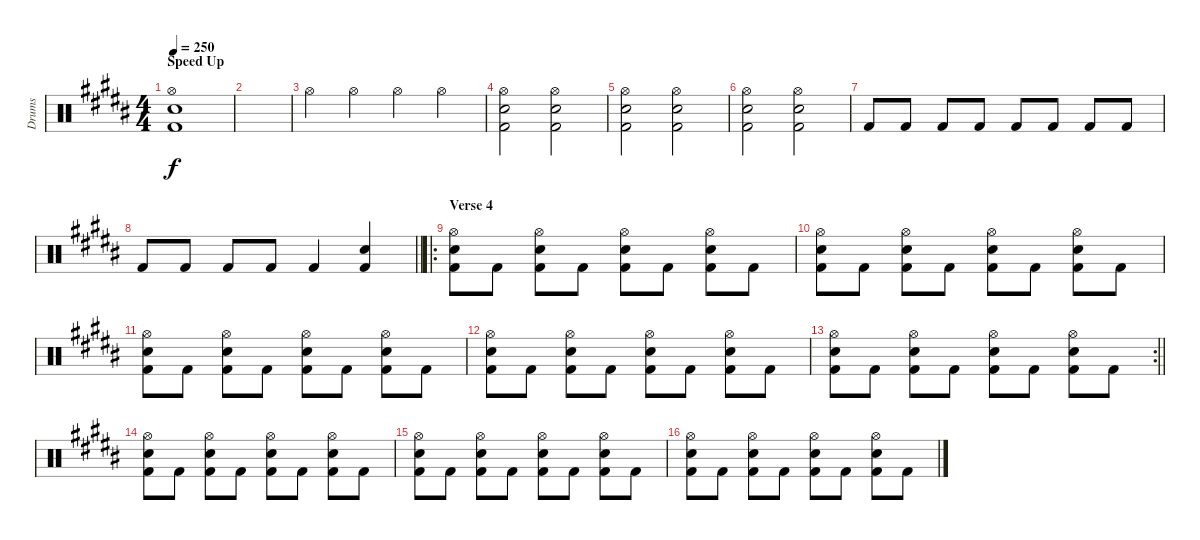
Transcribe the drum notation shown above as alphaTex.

\track ("Drums" "Drums") {instrument percussion}
\staff {score}
\articulation defaults
\ts (4 4)
\section ("" "Speed Up")
\tempo 250
\clef neutral
\ks b
("Hi-Hat (open)" "Snare (hit) 2" "Kick (hit) 2").1{dy f} |
\ks g#minor
|
\ks b "Hi-Hat (open)".4 "Hi-Hat (open)".4 "Hi-Hat (open)".4 "Hi-Hat (open)".4
|
\ks g#minor
("Hi-Hat (open)" "Snare (hit) 2" "Kick (hit) 2").2 ("Hi-Hat (open)" "Snare (hit) 2" "Kick (hit) 2").2 |
\ks b
("Hi-Hat (open)" "Snare (hit) 2" "Kick (hit) 2").2 ("Hi-Hat (open)" "Snare (hit) 2" "Kick (hit) 2").2 |
\ks g#minor
("Hi-Hat (open)" "Snare (hit) 2" "Kick (hit) 2").2 ("Hi-Hat (open)" "Snare (hit) 2" "Kick (hit) 2").2 |
\ks b "Kick (hit) 2".8 "Kick (hit) 2".8 "Kick (hit) 2".8 "Kick (hit) 2".8 "Kick (hit) 2".8 "Kick (hit) 2".8 "Kick (hit) 2".8 "Kick (hit) 2".8
|
\barLineRight lightlight
\ks g#minor "Kick (hit) 2".8 "Kick (hit) 2".8 "Kick (hit) 2".8 "Kick (hit) 2".8 "Kick (hit) 2".4
("Snare (hit) 2" "Kick (hit) 2").4 |
\ro
\section ("" "Verse 4")
("Hi-Hat (open)" "Snare (hit) 2" "Kick (hit) 2").8 "Kick (hit) 2".8 ("Hi-Hat (open)" "Snare (hit) 2" "Kick (hit) 2").8 "Kick (hit) 2".8 ("Hi-Hat (open)" "Snare (hit) 2" "Kick (hit) 2").8 "Kick (hit) 2".8 ("Hi-Hat (open)" "Snare (hit) 2" "Kick (hit) 2").8 "Kick (hit) 2".8 |
\ks b
("Hi-Hat (open)" "Snare (hit) 2" "Kick (hit) 2").8 "Kick (hit) 2".8 ("Hi-Hat (open)" "Snare (hit) 2" "Kick (hit) 2").8 "Kick (hit) 2".8 ("Hi-Hat (open)" "Snare (hit) 2" "Kick (hit) 2").8 "Kick (hit) 2".8 ("Hi-Hat (open)" "Snare (hit) 2" "Kick (hit) 2").8 "Kick (hit) 2".8 |
\ks g#minor
("Hi-Hat (open)" "Snare (hit) 2" "Kick (hit) 2").8 "Kick (hit) 2".8 ("Hi-Hat (open)" "Snare (hit) 2" "Kick (hit) 2").8 "Kick (hit) 2".8 ("Hi-Hat (open)" "Snare (hit) 2" "Kick (hit) 2").8 "Kick (hit) 2".8 ("Hi-Hat (open)" "Snare (hit) 2" "Kick (hit) 2").8 "Kick (hit) 2".8 |
\ks b
("Hi-Hat (open)" "Snare (hit) 2" "Kick (hit) 2").8 "Kick (hit) 2".8 ("Hi-Hat (open)" "Snare (hit) 2" "Kick (hit) 2").8 "Kick (hit) 2".8 ("Hi-Hat (open)" "Snare (hit) 2" "Kick (hit) 2").8 "Kick (hit) 2".8 ("Hi-Hat (open)" "Snare (hit) 2" "Kick (hit) 2").8 "Kick (hit) 2".8 |
\rc 2
\barLineRight lightlight
\ks g#minor
("Hi-Hat (open)" "Snare (hit) 2" "Kick (hit) 2").8 "Kick (hit) 2".8 ("Hi-Hat (open)" "Snare (hit) 2" "Kick (hit) 2").8 "Kick (hit) 2".8 ("Hi-Hat (open)" "Snare (hit) 2" "Kick (hit) 2").8 "Kick (hit) 2".8 ("Hi-Hat (open)" "Snare (hit) 2" "Kick (hit) 2").8 "Kick (hit) 2".8 |
("Hi-Hat (open)" "Snare (hit) 2" "Kick (hit) 2").8 "Kick (hit) 2".8 ("Hi-Hat (open)" "Snare (hit) 2" "Kick (hit) 2").8 "Kick (hit) 2".8 ("Hi-Hat (open)" "Snare (hit) 2" "Kick (hit) 2").8 "Kick (hit) 2".8 ("Hi-Hat (open)" "Snare (hit) 2" "Kick (hit) 2").8 "Kick (hit) 2".8 |
\ks b
("Hi-Hat (open)" "Snare (hit) 2" "Kick (hit) 2").8 "Kick (hit) 2".8 ("Hi-Hat (open)" "Snare (hit) 2" "Kick (hit) 2").8 "Kick (hit) 2".8 ("Hi-Hat (open)" "Snare (hit) 2" "Kick (hit) 2").8 "Kick (hit) 2".8 ("Hi-Hat (open)" "Snare (hit) 2" "Kick (hit) 2").8 "Kick (hit) 2".8 |
\ks g#minor
("Hi-Hat (open)" "Snare (hit) 2" "Kick (hit) 2").8 "Kick (hit) 2".8 ("Hi-Hat (open)" "Snare (hit) 2" "Kick (hit) 2").8 "Kick (hit) 2".8 ("Hi-Hat (open)" "Snare (hit) 2" "Kick (hit) 2").8 "Kick (hit) 2".8 ("Hi-Hat (open)" "Snare (hit) 2" "Kick (hit) 2").8 "Kick (hit) 2".8
